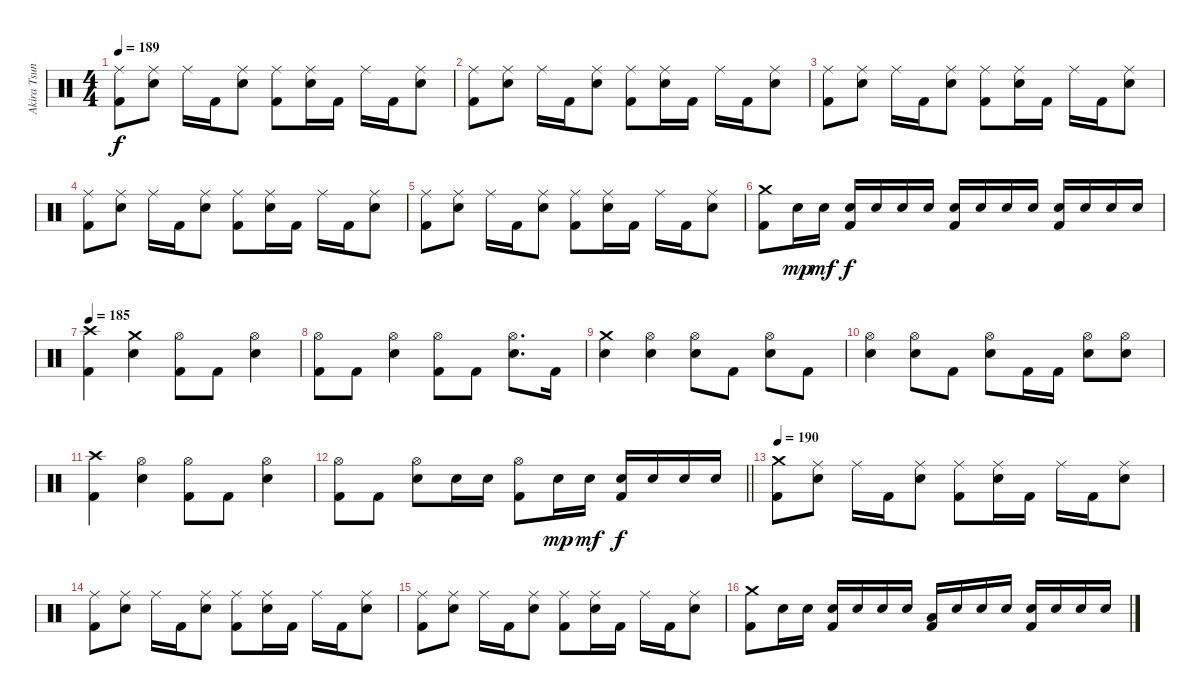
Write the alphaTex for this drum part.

\track ("Akira Tsuneoka" "Akira Tsun") {instrument percussion}
\staff {score}
\articulation defaults
\ts (4 4)
\tempo 189
\clef neutral
\ks c
("Ride (middle)" "Kick (hit) 2").8{dy f} ("Ride (middle)" "Electric Snare (hit)").8 "Ride (middle)".16 "Kick (hit) 2".16 ("Ride (middle)" "Electric Snare (hit)").8 ("Ride (middle)" "Kick (hit) 2").8 ("Ride (middle)" "Electric Snare (hit)").16 "Kick (hit) 2".16 "Ride (middle)".16 "Kick (hit) 2".16 ("Ride (middle)" "Electric Snare (hit)").8 |
("Ride (middle)" "Kick (hit) 2").8 ("Ride (middle)" "Electric Snare (hit)").8 "Ride (middle)".16 "Kick (hit) 2".16 ("Ride (middle)" "Electric Snare (hit)").8 ("Ride (middle)" "Kick (hit) 2").8 ("Ride (middle)" "Electric Snare (hit)").16 "Kick (hit) 2".16 "Ride (middle)".16 "Kick (hit) 2".16 ("Ride (middle)" "Electric Snare (hit)").8 |
("Ride (middle)" "Kick (hit) 2").8 ("Ride (middle)" "Electric Snare (hit)").8 "Ride (middle)".16 "Kick (hit) 2".16 ("Ride (middle)" "Electric Snare (hit)").8 ("Ride (middle)" "Kick (hit) 2").8 ("Ride (middle)" "Electric Snare (hit)").16 "Kick (hit) 2".16 "Ride (middle)".16 "Kick (hit) 2".16 ("Ride (middle)" "Electric Snare (hit)").8 |
("Ride (middle)" "Kick (hit) 2").8 ("Ride (middle)" "Electric Snare (hit)").8 "Ride (middle)".16 "Kick (hit) 2".16 ("Ride (middle)" "Electric Snare (hit)").8 ("Ride (middle)" "Kick (hit) 2").8 ("Ride (middle)" "Electric Snare (hit)").16 "Kick (hit) 2".16 "Ride (middle)".16 "Kick (hit) 2".16 ("Ride (middle)" "Electric Snare (hit)").8 |
("Ride (middle)" "Kick (hit) 2").8 ("Ride (middle)" "Electric Snare (hit)").8 "Ride (middle)".16 "Kick (hit) 2".16 ("Ride (middle)" "Electric Snare (hit)").8 ("Ride (middle)" "Kick (hit) 2").8 ("Ride (middle)" "Electric Snare (hit)").16 "Kick (hit) 2".16 "Ride (middle)".16 "Kick (hit) 2".16 ("Ride (middle)" "Electric Snare (hit)").8 |
("Crash medium (hit)" "Kick (hit) 2").8 "Electric Snare (hit)".16{dy mp} "Electric Snare (hit)".16{dy mf} ("Electric Snare (hit)" "Kick (hit) 2").16{dy f} "Electric Snare (hit)".16 "Electric Snare (hit)".16 "Electric Snare (hit)".16 ("Electric Snare (hit)" "Kick (hit) 2").16 "Electric Snare (hit)".16 "Electric Snare (hit)".16 "Electric Snare (hit)".16 ("Electric Snare (hit)" "Kick (hit) 2").16 "Electric Snare (hit)".16 "Electric Snare (hit)".16 "Electric Snare (hit)".16 |
\tempo 185
("Crash high (hit)" "Kick (hit) 2").4 ("Crash medium (hit)" "Electric Snare (hit)").4 ("Hi-Hat (open)" "Kick (hit) 2").8 "Kick (hit) 2".8 ("Hi-Hat (open)" "Electric Snare (hit)").4 |
("Hi-Hat (open)" "Kick (hit) 2").8 "Kick (hit) 2".8 ("Hi-Hat (open)" "Electric Snare (hit)").4 ("Hi-Hat (open)" "Kick (hit) 2").8 "Kick (hit) 2".8 ("Hi-Hat (open)" "Electric Snare (hit)").8{d} "Kick (hit) 2".16 |
("Crash medium (hit)" "Electric Snare (hit)").4 ("Hi-Hat (open)" "Electric Snare (hit)").4 ("Hi-Hat (open)" "Electric Snare (hit)").8 "Kick (hit) 2".8 ("Hi-Hat (open)" "Electric Snare (hit)").8 "Kick (hit) 2".8 |
("Hi-Hat (open)" "Electric Snare (hit)").4 ("Hi-Hat (open)" "Electric Snare (hit)").8 "Kick (hit) 2".8 ("Hi-Hat (open)" "Electric Snare (hit)").8 "Kick (hit) 2".16 "Kick (hit) 2".16 ("Hi-Hat (open)" "Electric Snare (hit)").8 ("Hi-Hat (open)" "Electric Snare (hit)").8 |
("Crash high (hit)" "Kick (hit) 2").4 ("Hi-Hat (open)" "Electric Snare (hit)").4 ("Hi-Hat (open)" "Kick (hit) 2").8 "Kick (hit) 2".8 ("Hi-Hat (open)" "Electric Snare (hit)").4 |
\barLineRight lightlight
("Hi-Hat (open)" "Kick (hit) 2").8 "Kick (hit) 2".8 ("Hi-Hat (open)" "Electric Snare (hit)").8 "Electric Snare (hit)".16 "Electric Snare (hit)".16 ("Hi-Hat (open)" "Kick (hit) 2").8 "Electric Snare (hit)".16{dy mp} "Electric Snare (hit)".16{dy mf} ("Electric Snare (hit)" "Kick (hit) 2").16{dy f} "Electric Snare (hit)".16 "Electric Snare (hit)".16 "Electric Snare (hit)".16 |
\section ("" "")
\tempo 190
("Crash medium (hit)" "Kick (hit) 2").8 ("Ride (middle)" "Electric Snare (hit)").8 "Ride (middle)".16 "Kick (hit) 2".16 ("Ride (middle)" "Electric Snare (hit)").8 ("Ride (middle)" "Kick (hit) 2").8 ("Ride (middle)" "Electric Snare (hit)").16 "Kick (hit) 2".16 "Ride (middle)".16 "Kick (hit) 2".16 ("Ride (middle)" "Electric Snare (hit)").8 |
("Ride (middle)" "Kick (hit) 2").8 ("Ride (middle)" "Electric Snare (hit)").8 "Ride (middle)".16 "Kick (hit) 2".16 ("Ride (middle)" "Electric Snare (hit)").8 ("Ride (middle)" "Kick (hit) 2").8 ("Ride (middle)" "Electric Snare (hit)").16 "Kick (hit) 2".16 "Ride (middle)".16 "Kick (hit) 2".16 ("Ride (middle)" "Electric Snare (hit)").8 |
("Ride (middle)" "Kick (hit) 2").8 ("Ride (middle)" "Electric Snare (hit)").8 "Ride (middle)".16 "Kick (hit) 2".16 ("Ride (middle)" "Electric Snare (hit)").8 ("Ride (middle)" "Kick (hit) 2").8 ("Ride (middle)" "Electric Snare (hit)").16 "Kick (hit) 2".16 "Ride (middle)".16 "Kick (hit) 2".16 ("Ride (middle)" "Electric Snare (hit)").8 |
("Crash medium (hit)" "Kick (hit) 2").8 "Electric Snare (hit)".16 "Electric Snare (hit)".16 ("Electric Snare (hit)" "Kick (hit) 2").16 "Electric Snare (hit)".16 "Electric Snare (hit)".16 "Electric Snare (hit)".16 ("Low Tom (hit)" "Kick (hit) 2").16 "Electric Snare (hit)".16 "Electric Snare (hit)".16 "Electric Snare (hit)".16 ("Electric Snare (hit)" "Kick (hit) 2").16 "Electric Snare (hit)".16 "Electric Snare (hit)".16 "Electric Snare (hit)".16
